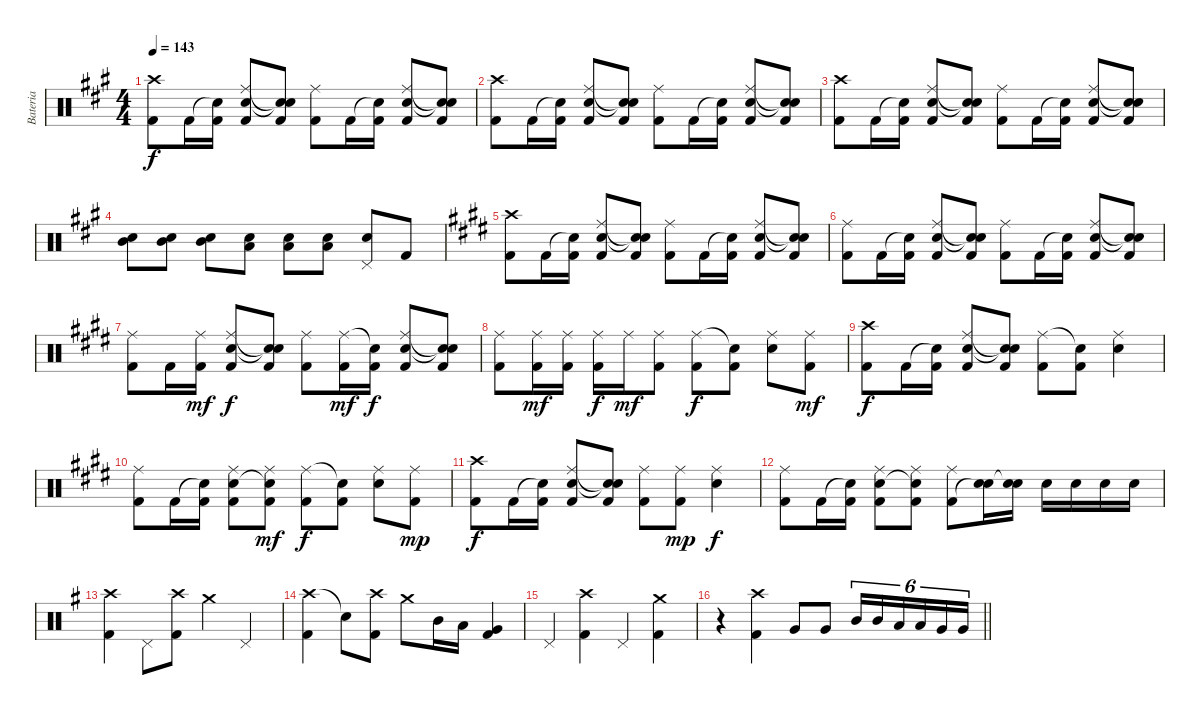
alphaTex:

\track ("Bateria" "Bateria") {instrument percussion}
\staff {score}
\articulation defaults
\ts (4 4)
\tempo 143
\clef neutral
\ks a
("Crash high (hit)" "Kick (hit) 2").8{dy f} "Kick (hit) 2".16 ("Snare (hit)"{t} "Kick (hit) 2").16 ("Ride (middle)" "Electric Snare (hit)" "Kick (hit) 2").8 ("Snare (hit)"{t} "Snare (hit)"{t} "Kick (hit) 2").8 ("Ride (middle)" "Kick (hit) 2").8 "Kick (hit) 2".16 ("Snare (hit)"{t} "Kick (hit) 2").16 ("Ride (middle)" "Electric Snare (hit)" "Kick (hit) 2").8 ("Snare (hit)"{t} "Snare (hit)"{t} "Kick (hit) 2").8 |
("Crash high (hit)" "Kick (hit) 2").8 "Kick (hit) 2".16 ("Snare (hit)"{t} "Kick (hit) 2").16 ("Ride (middle)" "Electric Snare (hit)" "Kick (hit) 2").8 ("Snare (hit)"{t} "Snare (hit)"{t} "Kick (hit) 2").8 ("Ride (middle)" "Kick (hit) 2").8 "Kick (hit) 2".16 ("Snare (hit)"{t} "Kick (hit) 2").16 ("Ride (middle)" "Electric Snare (hit)" "Kick (hit) 2").8 ("Snare (hit)"{t} "Snare (hit)"{t} "Kick (hit) 2").8 |
("Crash high (hit)" "Kick (hit) 2").8 "Kick (hit) 2".16 ("Snare (hit)"{t} "Kick (hit) 2").16 ("Ride (middle)" "Electric Snare (hit)" "Kick (hit) 2").8 ("Snare (hit)"{t} "Snare (hit)"{t} "Kick (hit) 2").8 ("Ride (middle)" "Kick (hit) 2").8 "Kick (hit) 2".16 ("Snare (hit)"{t} "Kick (hit) 2").16 ("Ride (middle)" "Electric Snare (hit)" "Kick (hit) 2").8 ("Snare (hit)"{t} "Snare (hit)"{t} "Kick (hit) 2").8 |
("Electric Snare (hit)" "Mid Tom (hit)").8 ("Electric Snare (hit)" "Mid Tom (hit)").8 ("Electric Snare (hit)" "Mid Tom (hit)").8 ("Electric Snare (hit)" "Low Tom (hit)").8 ("Electric Snare (hit)" "Low Tom (hit)").8 ("Electric Snare (hit)" "Low Tom (hit)").8 ("Pedal Hi-Hat (hit)" "Electric Snare (hit)").8 "Kick (hit) 2".8 |
\ks e
("Crash high (hit)" "Kick (hit) 2").8 "Kick (hit) 2".16 ("Snare (hit)"{t} "Kick (hit) 2").16 ("Ride (middle)" "Electric Snare (hit)" "Kick (hit) 2").8 ("Snare (hit)"{t} "Snare (hit)"{t} "Kick (hit) 2").8 ("Ride (middle)" "Kick (hit) 2").8 "Kick (hit) 2".16 ("Snare (hit)"{t} "Kick (hit) 2").16 ("Ride (middle)" "Electric Snare (hit)" "Kick (hit) 2").8 ("Snare (hit)"{t} "Snare (hit)"{t} "Kick (hit) 2").8 |
("Ride (middle)" "Kick (hit) 2").8 "Kick (hit) 2".16 ("Snare (hit)"{t} "Kick (hit) 2").16 ("Ride (middle)" "Electric Snare (hit)" "Kick (hit) 2").8 ("Snare (hit)"{t} "Snare (hit)"{t} "Kick (hit) 2").8 ("Ride (middle)" "Kick (hit) 2").8 "Kick (hit) 2".16 ("Snare (hit)"{t} "Kick (hit) 2").16 ("Ride (middle)" "Electric Snare (hit)" "Kick (hit) 2").8 ("Snare (hit)"{t} "Snare (hit)"{t} "Kick (hit) 2").8 |
("Ride (middle)" "Kick (hit) 2").8 "Kick (hit) 2".16 ("Ride (middle)" "Kick (hit) 2").16{dy mf} ("Ride (middle)" "Electric Snare (hit)" "Kick (hit) 2").8{dy f} ("Snare (hit)"{t} "Snare (hit)"{t} "Kick (hit) 2").8 ("Ride (middle)" "Kick (hit) 2").8 ("Ride (middle)" "Kick (hit) 2").16{dy mf} ("Snare (hit)"{t} "Kick (hit) 2").16{dy f} ("Ride (middle)" "Electric Snare (hit)" "Kick (hit) 2").8 ("Snare (hit)"{t} "Snare (hit)"{t} "Kick (hit) 2").8 |
("Ride (middle)" "Kick (hit) 2").8 ("Ride (middle)" "Kick (hit) 2").16{dy mf} ("Ride (middle)" "Kick (hit) 2").16 ("Ride (middle)" "Kick (hit) 2").16{dy f} "Ride (middle)".16{dy mf} ("Ride (middle)" "Kick (hit) 2").8 ("Ride (middle)" "Kick (hit) 2").8{dy f} ("Snare (hit)"{t} "Kick (hit) 2").8 ("Ride (middle)" "Electric Snare (hit)").8 ("Ride (middle)" "Kick (hit) 2").8{dy mf} |
("Crash high (hit)" "Kick (hit) 2").8{dy f} "Kick (hit) 2".16 ("Snare (hit)"{t} "Kick (hit) 2").16 ("Ride (middle)" "Electric Snare (hit)" "Kick (hit) 2").8 ("Snare (hit)"{t} "Snare (hit)"{t} "Kick (hit) 2").8 ("Ride (middle)" "Kick (hit) 2").8 ("Snare (hit)"{t} "Kick (hit) 2").8 ("Ride (middle)" "Electric Snare (hit)").4 |
("Ride (middle)" "Kick (hit) 2").8 "Kick (hit) 2".16 ("Snare (hit)"{t} "Kick (hit) 2").16 ("Ride (middle)" "Electric Snare (hit)" "Kick (hit) 2").8 ("Ride (middle)" "Snare (hit)"{t} "Kick (hit) 2").8{dy mf} ("Ride (middle)" "Kick (hit) 2").8{dy f} ("Snare (hit)"{t} "Kick (hit) 2").8 ("Ride (middle)" "Electric Snare (hit)").8 ("Ride (middle)" "Kick (hit) 2").8{dy mp} |
("Crash high (hit)" "Kick (hit) 2").8{dy f} "Kick (hit) 2".16 ("Snare (hit)"{t} "Kick (hit) 2").16 ("Ride (middle)" "Electric Snare (hit)" "Kick (hit) 2").8 ("Snare (hit)"{t} "Snare (hit)"{t} "Kick (hit) 2").8 ("Ride (middle)" "Kick (hit) 2").8 ("Ride (middle)" "Kick (hit) 2").8{dy mp} ("Ride (middle)" "Electric Snare (hit)").4{dy f} |
("Ride (middle)" "Kick (hit) 2").8 "Kick (hit) 2".16 ("Snare (hit)"{t} "Kick (hit) 2").16 ("Ride (middle)" "Electric Snare (hit)" "Kick (hit) 2").8 ("Ride (middle)" "Snare (hit)"{t} "Kick (hit) 2").8 ("Ride (middle)" "Kick (hit) 2").8 ("Electric Snare (hit)" "Snare (hit)"{t}).16 ("Electric Snare (hit)" "Snare (hit)"{t}).16 "Electric Snare (hit)".16 "Electric Snare (hit)".16 "Electric Snare (hit)".16 "Electric Snare (hit)".16 |
\ks g
("Crash high (hit)" "Kick (hit) 2").4 "Pedal Hi-Hat (hit)".8 ("Crash high (hit)" "Kick (hit) 2").8 "Crash medium (hit)".4 "Pedal Hi-Hat (hit)".4 |
("Crash high (hit)" "Kick (hit) 2").4 "Snare (hit)"{t}.8 ("Crash high (hit)" "Kick (hit) 2").8 "Crash medium (hit)".8 "Mid Tom (hit)".16 "Low Tom (hit)".16 ("Very Low Tom (hit)" "Kick (hit) 2").4 |
"Pedal Hi-Hat (hit)".4 ("Crash high (hit)" "Kick (hit) 2").4 "Pedal Hi-Hat (hit)".4 ("Crash medium (hit)" "Kick (hit) 2").4 |
\barLineRight lightlight
r.4 ("Crash high (hit)" "Kick (hit) 2").4 "Very Low Tom (hit)".8 "Very Low Tom (hit)".8 "Mid Tom (hit)".16{tu (6 4)} "Mid Tom (hit)".16{tu (6 4)} "Low Tom (hit)".16{tu (6 4)} "Low Tom (hit)".16{tu (6 4)} "Very Low Tom (hit)".16{tu (6 4)} "Very Low Tom (hit)".16{tu (6 4)}
